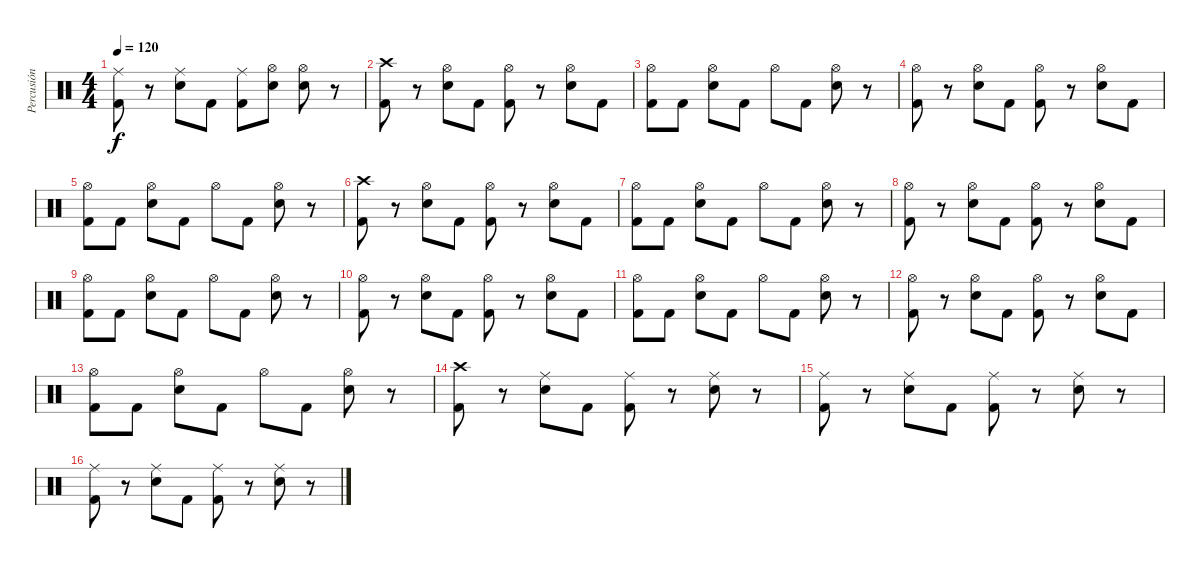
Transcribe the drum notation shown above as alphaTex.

\track ("Percusión" "Percusión") {instrument percussion}
\staff {score}
\articulation defaults
\ts (4 4)
\tempo 120
\clef neutral
\ks c
("Ride (middle)" "Kick (hit) 2").8{dy f} r.8 ("Ride (middle)" "Snare (hit) 2").8 "Kick (hit) 2".8 ("Ride (middle)" "Kick (hit) 2").8 ("Hi-Hat (open)" "Snare (hit) 2").8 ("Hi-Hat (open)" "Snare (hit) 2").8 r.8 |
("Crash high (hit)" "Kick (hit) 2").8 r.8 ("Hi-Hat (open)" "Snare (hit) 2").8 "Kick (hit) 2".8 ("Hi-Hat (open)" "Kick (hit) 2").8 r.8 ("Hi-Hat (open)" "Snare (hit) 2").8 "Kick (hit) 2".8 |
("Hi-Hat (open)" "Kick (hit) 2").8 "Kick (hit) 2".8 ("Hi-Hat (open)" "Snare (hit) 2").8 "Kick (hit) 2".8 "Hi-Hat (open)".8 "Kick (hit) 2".8 ("Hi-Hat (open)" "Snare (hit) 2").8 r.8 |
("Hi-Hat (open)" "Kick (hit) 2").8 r.8 ("Hi-Hat (open)" "Snare (hit) 2").8 "Kick (hit) 2".8 ("Hi-Hat (open)" "Kick (hit) 2").8 r.8 ("Hi-Hat (open)" "Snare (hit) 2").8 "Kick (hit) 2".8 |
("Hi-Hat (open)" "Kick (hit) 2").8 "Kick (hit) 2".8 ("Hi-Hat (open)" "Snare (hit) 2").8 "Kick (hit) 2".8 "Hi-Hat (open)".8 "Kick (hit) 2".8 ("Hi-Hat (open)" "Snare (hit) 2").8 r.8 |
("Crash high (hit)" "Kick (hit) 2").8 r.8 ("Hi-Hat (open)" "Snare (hit) 2").8 "Kick (hit) 2".8 ("Hi-Hat (open)" "Kick (hit) 2").8 r.8 ("Hi-Hat (open)" "Snare (hit) 2").8 "Kick (hit) 2".8 |
("Hi-Hat (open)" "Kick (hit) 2").8 "Kick (hit) 2".8 ("Hi-Hat (open)" "Snare (hit) 2").8 "Kick (hit) 2".8 "Hi-Hat (open)".8 "Kick (hit) 2".8 ("Hi-Hat (open)" "Snare (hit) 2").8 r.8 |
("Hi-Hat (open)" "Kick (hit) 2").8 r.8 ("Hi-Hat (open)" "Snare (hit) 2").8 "Kick (hit) 2".8 ("Hi-Hat (open)" "Kick (hit) 2").8 r.8 ("Hi-Hat (open)" "Snare (hit) 2").8 "Kick (hit) 2".8 |
("Hi-Hat (open)" "Kick (hit) 2").8 "Kick (hit) 2".8 ("Hi-Hat (open)" "Snare (hit) 2").8 "Kick (hit) 2".8 "Hi-Hat (open)".8 "Kick (hit) 2".8 ("Hi-Hat (open)" "Snare (hit) 2").8 r.8 |
("Hi-Hat (open)" "Kick (hit) 2").8 r.8 ("Hi-Hat (open)" "Snare (hit) 2").8 "Kick (hit) 2".8 ("Hi-Hat (open)" "Kick (hit) 2").8 r.8 ("Hi-Hat (open)" "Snare (hit) 2").8 "Kick (hit) 2".8 |
("Hi-Hat (open)" "Kick (hit) 2").8 "Kick (hit) 2".8 ("Hi-Hat (open)" "Snare (hit) 2").8 "Kick (hit) 2".8 "Hi-Hat (open)".8 "Kick (hit) 2".8 ("Hi-Hat (open)" "Snare (hit) 2").8 r.8 |
("Hi-Hat (open)" "Kick (hit) 2").8 r.8 ("Hi-Hat (open)" "Snare (hit) 2").8 "Kick (hit) 2".8 ("Hi-Hat (open)" "Kick (hit) 2").8 r.8 ("Hi-Hat (open)" "Snare (hit) 2").8 "Kick (hit) 2".8 |
("Hi-Hat (open)" "Kick (hit) 2").8 "Kick (hit) 2".8 ("Hi-Hat (open)" "Snare (hit) 2").8 "Kick (hit) 2".8 "Hi-Hat (open)".8 "Kick (hit) 2".8 ("Hi-Hat (open)" "Snare (hit) 2").8 r.8 |
("Crash high (hit)" "Kick (hit) 2").8 r.8 ("Ride (middle)" "Snare (hit) 2").8 "Kick (hit) 2".8 ("Ride (middle)" "Kick (hit) 2").8 r.8 ("Ride (middle)" "Snare (hit) 2").8 r.8 |
("Ride (middle)" "Kick (hit) 2").8 r.8 ("Ride (middle)" "Snare (hit) 2").8 "Kick (hit) 2".8 ("Ride (middle)" "Kick (hit) 2").8 r.8 ("Ride (middle)" "Snare (hit) 2").8 r.8 |
("Ride (middle)" "Kick (hit) 2").8 r.8 ("Ride (middle)" "Snare (hit) 2").8 "Kick (hit) 2".8 ("Ride (middle)" "Kick (hit) 2").8 r.8 ("Ride (middle)" "Snare (hit) 2").8 r.8
